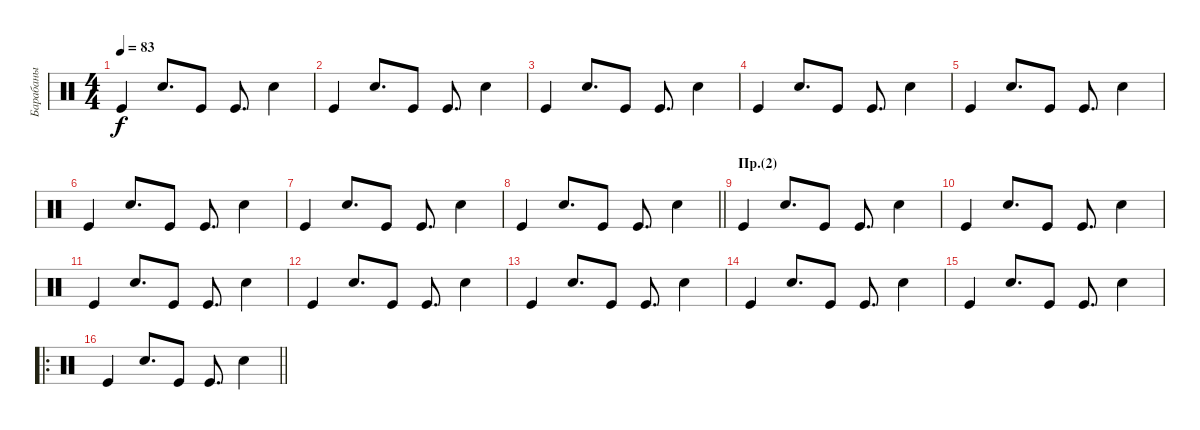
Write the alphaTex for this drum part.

\track ("Барабаны" "Барабаны") {instrument percussion}
\staff {score}
\articulation defaults
\ts (4 4)
\tempo 83
\clef neutral
\ks c "Kick (hit)".4{dy f} "Snare (hit) 2".8{d} "Kick (hit)".8 "Kick (hit)".8{d} "Snare (hit) 2".4
|
"Kick (hit)".4 "Snare (hit) 2".8{d} "Kick (hit)".8 "Kick (hit)".8{d} "Snare (hit) 2".4 |
"Kick (hit)".4 "Snare (hit) 2".8{d} "Kick (hit)".8 "Kick (hit)".8{d} "Snare (hit) 2".4 |
"Kick (hit)".4 "Snare (hit) 2".8{d} "Kick (hit)".8 "Kick (hit)".8{d} "Snare (hit) 2".4 |
"Kick (hit)".4 "Snare (hit) 2".8{d} "Kick (hit)".8 "Kick (hit)".8{d} "Snare (hit) 2".4 |
"Kick (hit)".4 "Snare (hit) 2".8{d} "Kick (hit)".8 "Kick (hit)".8{d} "Snare (hit) 2".4 |
"Kick (hit)".4 "Snare (hit) 2".8{d} "Kick (hit)".8 "Kick (hit)".8{d} "Snare (hit) 2".4 |
\barLineRight lightlight "Kick (hit)".4 "Snare (hit) 2".8{d} "Kick (hit)".8 "Kick (hit)".8{d} "Snare (hit) 2".4
|
\section ("" "Пр.(2)")
"Kick (hit)".4 "Snare (hit) 2".8{d} "Kick (hit)".8 "Kick (hit)".8{d} "Snare (hit) 2".4 |
"Kick (hit)".4 "Snare (hit) 2".8{d} "Kick (hit)".8 "Kick (hit)".8{d} "Snare (hit) 2".4 |
"Kick (hit)".4 "Snare (hit) 2".8{d} "Kick (hit)".8 "Kick (hit)".8{d} "Snare (hit) 2".4 |
"Kick (hit)".4 "Snare (hit) 2".8{d} "Kick (hit)".8 "Kick (hit)".8{d} "Snare (hit) 2".4 |
"Kick (hit)".4 "Snare (hit) 2".8{d} "Kick (hit)".8 "Kick (hit)".8{d} "Snare (hit) 2".4 |
"Kick (hit)".4 "Snare (hit) 2".8{d} "Kick (hit)".8 "Kick (hit)".8{d} "Snare (hit) 2".4 |
"Kick (hit)".4 "Snare (hit) 2".8{d} "Kick (hit)".8 "Kick (hit)".8{d} "Snare (hit) 2".4 |
\ro
\barLineRight lightlight "Kick (hit)".4 "Snare (hit) 2".8{d} "Kick (hit)".8 "Kick (hit)".8{d} "Snare (hit) 2".4
